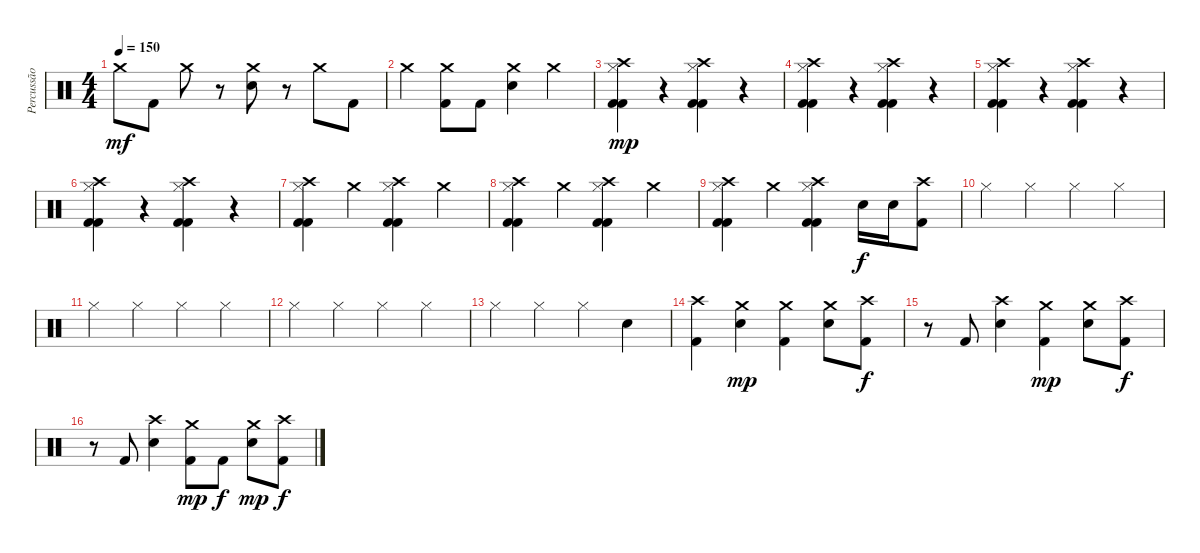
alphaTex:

\track ("Percussão" "Percussão") {instrument percussion}
\staff {score}
\articulation defaults
\ts (4 4)
\tempo 150
\clef neutral
\ks c "Crash medium (hit)".8{dy mf} "Kick (hit) 2".8 "Crash medium (hit)".8
r.8 ("Crash medium (hit)" "Snare (hit) 2").8 r.8 "Crash medium (hit)".8 "Kick (hit) 2".8 |
"Crash medium (hit)".4 ("Crash medium (hit)" "Kick (hit) 2").8 "Kick (hit) 2".8 ("Snare (hit) 2" "Crash medium (hit)").4 "Crash medium (hit)".4 |
("Hi-Hat (closed)" "Crash high (hit)" "Kick (hit) 2" "Kick (hit) 2").4{dy mp} r.4 ("Hi-Hat (closed)" "Crash high (hit)" "Kick (hit) 2" "Kick (hit) 2").4 r.4 |
("Hi-Hat (closed)" "Crash high (hit)" "Kick (hit) 2" "Kick (hit) 2").4 r.4 ("Hi-Hat (closed)" "Crash high (hit)" "Kick (hit) 2" "Kick (hit) 2").4 r.4 |
("Hi-Hat (closed)" "Crash high (hit)" "Kick (hit) 2" "Kick (hit) 2").4 r.4 ("Hi-Hat (closed)" "Crash high (hit)" "Kick (hit) 2" "Kick (hit) 2").4 r.4 |
("Hi-Hat (closed)" "Crash high (hit)" "Kick (hit) 2" "Kick (hit) 2").4 r.4 ("Hi-Hat (closed)" "Crash high (hit)" "Kick (hit) 2" "Kick (hit) 2").4 r.4 |
("Hi-Hat (closed)" "Crash high (hit)" "Kick (hit) 2" "Kick (hit) 2").4 "Crash medium (hit)".4 ("Hi-Hat (closed)" "Crash high (hit)" "Kick (hit) 2" "Kick (hit) 2").4 "Crash medium (hit)".4 |
("Hi-Hat (closed)" "Crash high (hit)" "Kick (hit) 2" "Kick (hit) 2").4 "Crash medium (hit)".4 ("Hi-Hat (closed)" "Crash high (hit)" "Kick (hit) 2" "Kick (hit) 2").4 "Crash medium (hit)".4 |
("Hi-Hat (closed)" "Crash high (hit)" "Kick (hit) 2" "Kick (hit) 2").4 "Crash medium (hit)".4 ("Hi-Hat (closed)" "Crash high (hit)" "Kick (hit) 2" "Kick (hit) 2").4 "Snare (hit) 2".16{dy f} "Snare (hit) 2".16 ("Crash high (hit)" "Kick (hit) 2").8 |
"Hi-Hat (closed)".4 "Hi-Hat (closed)".4 "Hi-Hat (closed)".4 "Hi-Hat (closed)".4 |
"Hi-Hat (closed)".4 "Hi-Hat (closed)".4 "Hi-Hat (closed)".4 "Hi-Hat (closed)".4 |
"Hi-Hat (closed)".4 "Hi-Hat (closed)".4 "Hi-Hat (closed)".4 "Hi-Hat (closed)".4 |
"Hi-Hat (closed)".4 "Hi-Hat (closed)".4 "Hi-Hat (closed)".4 "Snare (hit) 2".4 |
("Crash high (hit)" "Kick (hit) 2").4 ("Crash medium (hit)" "Snare (hit) 2").4{dy mp} ("Crash medium (hit)" "Kick (hit) 2").4 ("Crash medium (hit)" "Snare (hit) 2").8 ("Crash high (hit)" "Kick (hit) 2").8{dy f} |
r.8 "Kick (hit) 2".8 ("Crash high (hit)" "Snare (hit) 2").4 ("Crash medium (hit)" "Kick (hit) 2").4{dy mp} ("Crash medium (hit)" "Snare (hit) 2").8 ("Crash high (hit)" "Kick (hit) 2").8{dy f} |
r.8 "Kick (hit) 2".8 ("Crash high (hit)" "Snare (hit) 2").4 ("Crash medium (hit)" "Kick (hit) 2").8{dy mp} "Kick (hit) 2".8{dy f} ("Crash medium (hit)" "Snare (hit) 2").8{dy mp} ("Crash high (hit)" "Kick (hit) 2").8{dy f}
